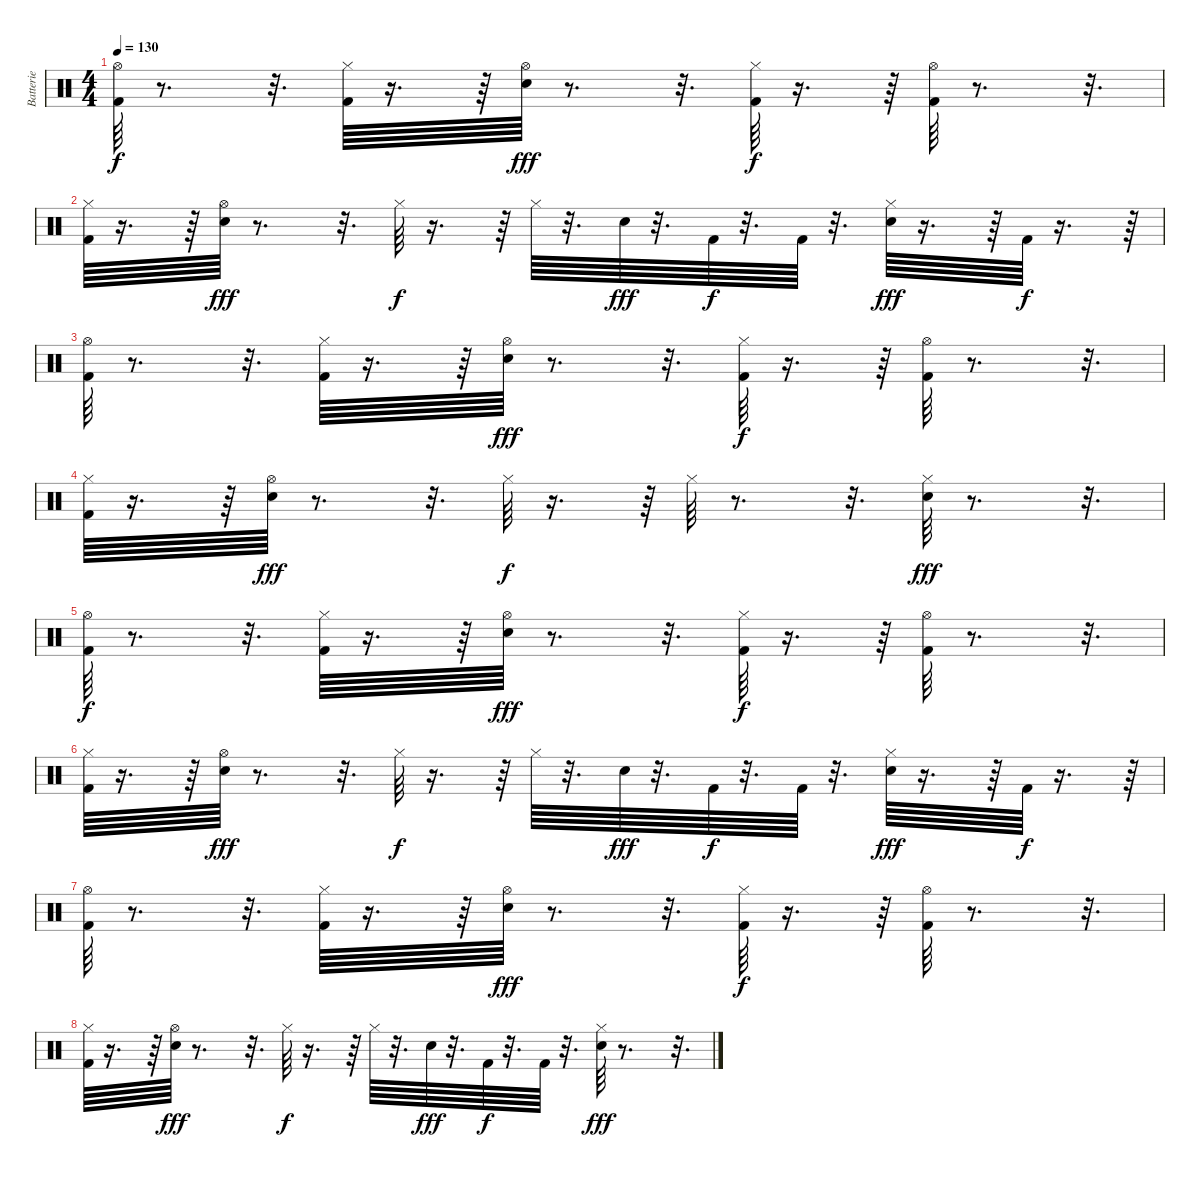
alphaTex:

\track ("Batterie" "Batterie") {instrument percussion}
\staff {score}
\articulation defaults
\ts (4 4)
\tempo 130
\clef neutral
\ks c
("Kick (hit) 2" "Hi-Hat (open)").64{dy f} r.8{d} r.32{d} ("Kick (hit) 2" "Hi-Hat (closed)").64 r.16{d} r.64 ("Snare (hit) 2" "Hi-Hat (open)").64{dy fff} r.8{d} r.32{d} ("Kick (hit) 2" "Hi-Hat (closed)").64{dy f} r.16{d} r.64 ("Kick (hit) 2" "Hi-Hat (open)").64 r.8{d} r.32{d} |
("Kick (hit) 2" "Hi-Hat (closed)").64 r.16{d} r.64 ("Snare (hit) 2" "Hi-Hat (open)").64{dy fff} r.8{d} r.32{d} "Hi-Hat (closed)".64{dy f} r.16{d} r.64 "Hi-Hat (closed)".64 r.32{d} "Snare (hit) 2".64{dy fff} r.32{d} "Kick (hit) 2".64{dy f} r.32{d} "Kick (hit) 2".64 r.32{d} ("Hi-Hat (closed)" "Snare (hit) 2").64{dy fff} r.16{d} r.64 "Kick (hit) 2".64{dy f} r.16{d} r.64 |
("Kick (hit) 2" "Hi-Hat (open)").64 r.8{d} r.32{d} ("Kick (hit) 2" "Hi-Hat (closed)").64 r.16{d} r.64 ("Snare (hit) 2" "Hi-Hat (open)").64{dy fff} r.8{d} r.32{d} ("Kick (hit) 2" "Hi-Hat (closed)").64{dy f} r.16{d} r.64 ("Kick (hit) 2" "Hi-Hat (open)").64 r.8{d} r.32{d} |
("Kick (hit) 2" "Hi-Hat (closed)").64 r.16{d} r.64 ("Snare (hit) 2" "Hi-Hat (open)").64{dy fff} r.8{d} r.32{d} "Hi-Hat (closed)".64{dy f} r.16{d} r.64 "Hi-Hat (closed)".64 r.8{d} r.32{d} ("Hi-Hat (closed)" "Snare (hit) 2").64{dy fff} r.8{d} r.32{d} |
("Kick (hit) 2" "Hi-Hat (open)").64{dy f} r.8{d} r.32{d} ("Kick (hit) 2" "Hi-Hat (closed)").64 r.16{d} r.64 ("Snare (hit) 2" "Hi-Hat (open)").64{dy fff} r.8{d} r.32{d} ("Kick (hit) 2" "Hi-Hat (closed)").64{dy f} r.16{d} r.64 ("Kick (hit) 2" "Hi-Hat (open)").64 r.8{d} r.32{d} |
("Kick (hit) 2" "Hi-Hat (closed)").64 r.16{d} r.64 ("Snare (hit) 2" "Hi-Hat (open)").64{dy fff} r.8{d} r.32{d} "Hi-Hat (closed)".64{dy f} r.16{d} r.64 "Hi-Hat (closed)".64 r.32{d} "Snare (hit) 2".64{dy fff} r.32{d} "Kick (hit) 2".64{dy f} r.32{d} "Kick (hit) 2".64 r.32{d} ("Hi-Hat (closed)" "Snare (hit) 2").64{dy fff} r.16{d} r.64 "Kick (hit) 2".64{dy f} r.16{d} r.64 |
("Kick (hit) 2" "Hi-Hat (open)").64 r.8{d} r.32{d} ("Kick (hit) 2" "Hi-Hat (closed)").64 r.16{d} r.64 ("Snare (hit) 2" "Hi-Hat (open)").64{dy fff} r.8{d} r.32{d} ("Kick (hit) 2" "Hi-Hat (closed)").64{dy f} r.16{d} r.64 ("Kick (hit) 2" "Hi-Hat (open)").64 r.8{d} r.32{d} |
("Kick (hit) 2" "Hi-Hat (closed)").64 r.16{d} r.64 ("Snare (hit) 2" "Hi-Hat (open)").64{dy fff} r.8{d} r.32{d} "Hi-Hat (closed)".64{dy f} r.16{d} r.64 "Hi-Hat (closed)".64 r.32{d} "Snare (hit) 2".64{dy fff} r.32{d} "Kick (hit) 2".64{dy f} r.32{d} "Kick (hit) 2".64 r.32{d} ("Hi-Hat (closed)" "Snare (hit) 2").64{dy fff} r.8{d} r.32{d}
